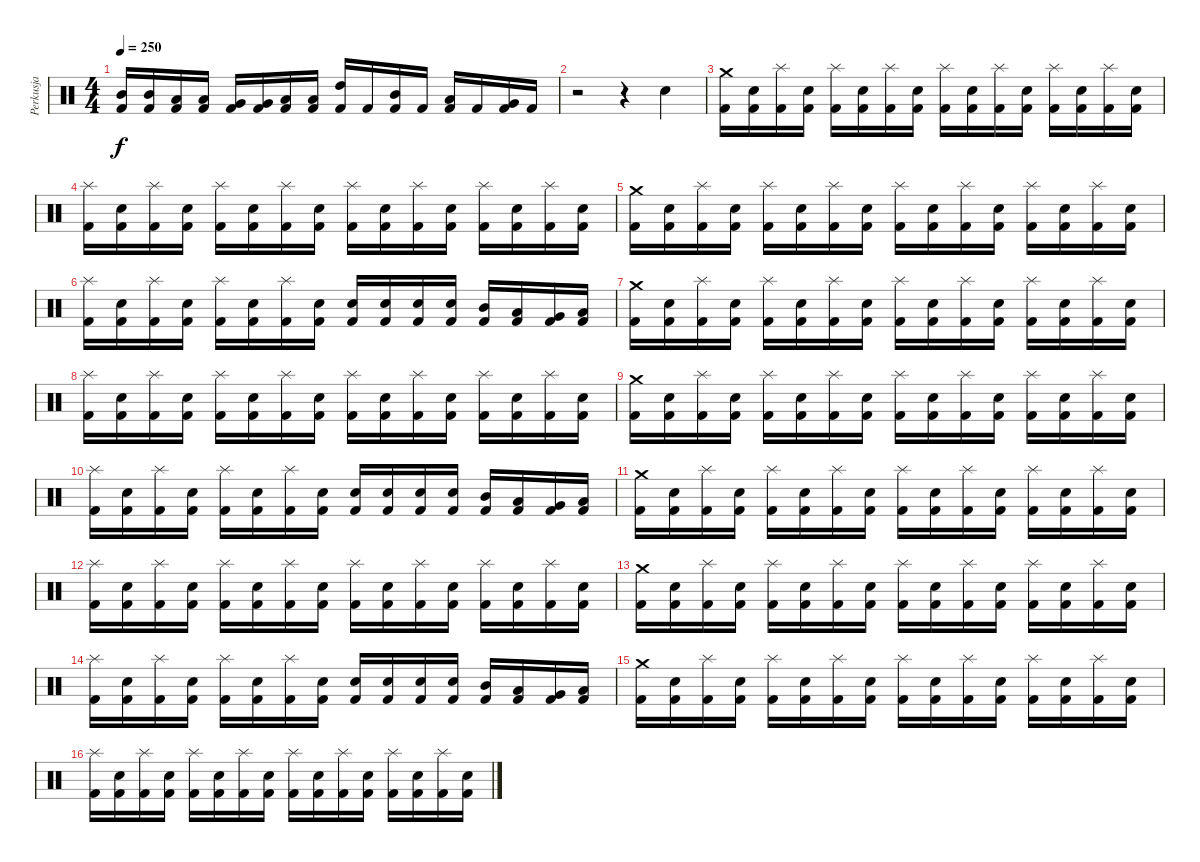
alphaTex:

\track ("Perkusja" "Perkusja") {instrument percussion}
\staff {score}
\articulation defaults
\ts (4 4)
\tempo 250
\clef neutral
\ks c
("Mid Tom (hit)" "Kick (hit) 2").16{dy f} ("Mid Tom (hit)" "Kick (hit) 2").16 ("Low Tom (hit)" "Kick (hit) 2").16 ("Low Tom (hit)" "Kick (hit) 2").16 ("Very Low Tom (hit)" "Kick (hit) 2").16 ("Very Low Tom (hit)" "Kick (hit) 2").16 ("Low Floor Tom (hit)" "Kick (hit) 2").16 ("Low Floor Tom (hit)" "Kick (hit) 2").16 ("High Tom (hit)" "Kick (hit) 2").16 "Kick (hit) 2".16 ("Mid Tom (hit)" "Kick (hit) 2").16 "Kick (hit) 2".16 ("Low Tom (hit)" "Kick (hit) 2").16 "Kick (hit) 2".16 ("Very Low Tom (hit)" "Kick (hit) 2").16 "Kick (hit) 2".16 |
r.2 r.4 "Electric Snare (hit)".4 |
("Crash medium (hit)" "Kick (hit) 2").16 ("Snare (hit) 2" "Kick (hit) 2").16 ("Splash (hit)" "Kick (hit) 2").16 ("Snare (hit) 2" "Kick (hit) 2").16 ("Splash (hit)" "Kick (hit) 2").16 ("Snare (hit) 2" "Kick (hit) 2").16 ("Splash (hit)" "Kick (hit) 2").16 ("Snare (hit) 2" "Kick (hit) 2").16 ("Splash (hit)" "Kick (hit) 2").16 ("Snare (hit) 2" "Kick (hit) 2").16 ("Splash (hit)" "Kick (hit) 2").16 ("Snare (hit) 2" "Kick (hit) 2").16 ("Splash (hit)" "Kick (hit) 2").16 ("Snare (hit) 2" "Kick (hit) 2").16 ("Splash (hit)" "Kick (hit) 2").16 ("Snare (hit) 2" "Kick (hit) 2").16 |
("Splash (hit)" "Kick (hit) 2").16 ("Snare (hit) 2" "Kick (hit) 2").16 ("Splash (hit)" "Kick (hit) 2").16 ("Snare (hit) 2" "Kick (hit) 2").16 ("Splash (hit)" "Kick (hit) 2").16 ("Snare (hit) 2" "Kick (hit) 2").16 ("Splash (hit)" "Kick (hit) 2").16 ("Snare (hit) 2" "Kick (hit) 2").16 ("Splash (hit)" "Kick (hit) 2").16 ("Snare (hit) 2" "Kick (hit) 2").16 ("Splash (hit)" "Kick (hit) 2").16 ("Snare (hit) 2" "Kick (hit) 2").16 ("Splash (hit)" "Kick (hit) 2").16 ("Snare (hit) 2" "Kick (hit) 2").16 ("Splash (hit)" "Kick (hit) 2").16 ("Snare (hit) 2" "Kick (hit) 2").16 |
("Crash medium (hit)" "Kick (hit) 2").16 ("Snare (hit) 2" "Kick (hit) 2").16 ("Splash (hit)" "Kick (hit) 2").16 ("Snare (hit) 2" "Kick (hit) 2").16 ("Splash (hit)" "Kick (hit) 2").16 ("Snare (hit) 2" "Kick (hit) 2").16 ("Splash (hit)" "Kick (hit) 2").16 ("Snare (hit) 2" "Kick (hit) 2").16 ("Splash (hit)" "Kick (hit) 2").16 ("Snare (hit) 2" "Kick (hit) 2").16 ("Splash (hit)" "Kick (hit) 2").16 ("Snare (hit) 2" "Kick (hit) 2").16 ("Splash (hit)" "Kick (hit) 2").16 ("Snare (hit) 2" "Kick (hit) 2").16 ("Splash (hit)" "Kick (hit) 2").16 ("Snare (hit) 2" "Kick (hit) 2").16 |
("Splash (hit)" "Kick (hit) 2").16 ("Snare (hit) 2" "Kick (hit) 2").16 ("Splash (hit)" "Kick (hit) 2").16 ("Snare (hit) 2" "Kick (hit) 2").16 ("Splash (hit)" "Kick (hit) 2").16 ("Snare (hit) 2" "Kick (hit) 2").16 ("Splash (hit)" "Kick (hit) 2").16 ("Snare (hit) 2" "Kick (hit) 2").16 ("Electric Snare (hit)" "Kick (hit) 2").16 ("Electric Snare (hit)" "Kick (hit) 2").16 ("Electric Snare (hit)" "Kick (hit) 2").16 ("Electric Snare (hit)" "Kick (hit) 2").16 ("Mid Tom (hit)" "Kick (hit) 2").16 ("Low Tom (hit)" "Kick (hit) 2").16 ("Very Low Tom (hit)" "Kick (hit) 2").16 ("Low Floor Tom (hit)" "Kick (hit) 2").16 |
("Crash medium (hit)" "Kick (hit) 2").16 ("Snare (hit) 2" "Kick (hit) 2").16 ("Splash (hit)" "Kick (hit) 2").16 ("Snare (hit) 2" "Kick (hit) 2").16 ("Splash (hit)" "Kick (hit) 2").16 ("Snare (hit) 2" "Kick (hit) 2").16 ("Splash (hit)" "Kick (hit) 2").16 ("Snare (hit) 2" "Kick (hit) 2").16 ("Splash (hit)" "Kick (hit) 2").16 ("Snare (hit) 2" "Kick (hit) 2").16 ("Splash (hit)" "Kick (hit) 2").16 ("Snare (hit) 2" "Kick (hit) 2").16 ("Splash (hit)" "Kick (hit) 2").16 ("Snare (hit) 2" "Kick (hit) 2").16 ("Splash (hit)" "Kick (hit) 2").16 ("Snare (hit) 2" "Kick (hit) 2").16 |
("Splash (hit)" "Kick (hit) 2").16 ("Snare (hit) 2" "Kick (hit) 2").16 ("Splash (hit)" "Kick (hit) 2").16 ("Snare (hit) 2" "Kick (hit) 2").16 ("Splash (hit)" "Kick (hit) 2").16 ("Snare (hit) 2" "Kick (hit) 2").16 ("Splash (hit)" "Kick (hit) 2").16 ("Snare (hit) 2" "Kick (hit) 2").16 ("Splash (hit)" "Kick (hit) 2").16 ("Snare (hit) 2" "Kick (hit) 2").16 ("Splash (hit)" "Kick (hit) 2").16 ("Snare (hit) 2" "Kick (hit) 2").16 ("Splash (hit)" "Kick (hit) 2").16 ("Snare (hit) 2" "Kick (hit) 2").16 ("Splash (hit)" "Kick (hit) 2").16 ("Snare (hit) 2" "Kick (hit) 2").16 |
("Crash medium (hit)" "Kick (hit) 2").16 ("Snare (hit) 2" "Kick (hit) 2").16 ("Splash (hit)" "Kick (hit) 2").16 ("Snare (hit) 2" "Kick (hit) 2").16 ("Splash (hit)" "Kick (hit) 2").16 ("Snare (hit) 2" "Kick (hit) 2").16 ("Splash (hit)" "Kick (hit) 2").16 ("Snare (hit) 2" "Kick (hit) 2").16 ("Splash (hit)" "Kick (hit) 2").16 ("Snare (hit) 2" "Kick (hit) 2").16 ("Splash (hit)" "Kick (hit) 2").16 ("Snare (hit) 2" "Kick (hit) 2").16 ("Splash (hit)" "Kick (hit) 2").16 ("Snare (hit) 2" "Kick (hit) 2").16 ("Splash (hit)" "Kick (hit) 2").16 ("Snare (hit) 2" "Kick (hit) 2").16 |
("Splash (hit)" "Kick (hit) 2").16 ("Snare (hit) 2" "Kick (hit) 2").16 ("Splash (hit)" "Kick (hit) 2").16 ("Snare (hit) 2" "Kick (hit) 2").16 ("Splash (hit)" "Kick (hit) 2").16 ("Snare (hit) 2" "Kick (hit) 2").16 ("Splash (hit)" "Kick (hit) 2").16 ("Snare (hit) 2" "Kick (hit) 2").16 ("Electric Snare (hit)" "Kick (hit) 2").16 ("Electric Snare (hit)" "Kick (hit) 2").16 ("Electric Snare (hit)" "Kick (hit) 2").16 ("Electric Snare (hit)" "Kick (hit) 2").16 ("Mid Tom (hit)" "Kick (hit) 2").16 ("Low Tom (hit)" "Kick (hit) 2").16 ("Very Low Tom (hit)" "Kick (hit) 2").16 ("Low Floor Tom (hit)" "Kick (hit) 2").16 |
("Crash medium (hit)" "Kick (hit) 2").16 ("Snare (hit) 2" "Kick (hit) 2").16 ("Splash (hit)" "Kick (hit) 2").16 ("Snare (hit) 2" "Kick (hit) 2").16 ("Splash (hit)" "Kick (hit) 2").16 ("Snare (hit) 2" "Kick (hit) 2").16 ("Splash (hit)" "Kick (hit) 2").16 ("Snare (hit) 2" "Kick (hit) 2").16 ("Splash (hit)" "Kick (hit) 2").16 ("Snare (hit) 2" "Kick (hit) 2").16 ("Splash (hit)" "Kick (hit) 2").16 ("Snare (hit) 2" "Kick (hit) 2").16 ("Splash (hit)" "Kick (hit) 2").16 ("Snare (hit) 2" "Kick (hit) 2").16 ("Splash (hit)" "Kick (hit) 2").16 ("Snare (hit) 2" "Kick (hit) 2").16 |
("Splash (hit)" "Kick (hit) 2").16 ("Snare (hit) 2" "Kick (hit) 2").16 ("Splash (hit)" "Kick (hit) 2").16 ("Snare (hit) 2" "Kick (hit) 2").16 ("Splash (hit)" "Kick (hit) 2").16 ("Snare (hit) 2" "Kick (hit) 2").16 ("Splash (hit)" "Kick (hit) 2").16 ("Snare (hit) 2" "Kick (hit) 2").16 ("Splash (hit)" "Kick (hit) 2").16 ("Snare (hit) 2" "Kick (hit) 2").16 ("Splash (hit)" "Kick (hit) 2").16 ("Snare (hit) 2" "Kick (hit) 2").16 ("Splash (hit)" "Kick (hit) 2").16 ("Snare (hit) 2" "Kick (hit) 2").16 ("Splash (hit)" "Kick (hit) 2").16 ("Snare (hit) 2" "Kick (hit) 2").16 |
("Crash medium (hit)" "Kick (hit) 2").16 ("Snare (hit) 2" "Kick (hit) 2").16 ("Splash (hit)" "Kick (hit) 2").16 ("Snare (hit) 2" "Kick (hit) 2").16 ("Splash (hit)" "Kick (hit) 2").16 ("Snare (hit) 2" "Kick (hit) 2").16 ("Splash (hit)" "Kick (hit) 2").16 ("Snare (hit) 2" "Kick (hit) 2").16 ("Splash (hit)" "Kick (hit) 2").16 ("Snare (hit) 2" "Kick (hit) 2").16 ("Splash (hit)" "Kick (hit) 2").16 ("Snare (hit) 2" "Kick (hit) 2").16 ("Splash (hit)" "Kick (hit) 2").16 ("Snare (hit) 2" "Kick (hit) 2").16 ("Splash (hit)" "Kick (hit) 2").16 ("Snare (hit) 2" "Kick (hit) 2").16 |
("Splash (hit)" "Kick (hit) 2").16 ("Snare (hit) 2" "Kick (hit) 2").16 ("Splash (hit)" "Kick (hit) 2").16 ("Snare (hit) 2" "Kick (hit) 2").16 ("Splash (hit)" "Kick (hit) 2").16 ("Snare (hit) 2" "Kick (hit) 2").16 ("Splash (hit)" "Kick (hit) 2").16 ("Snare (hit) 2" "Kick (hit) 2").16 ("Electric Snare (hit)" "Kick (hit) 2").16 ("Electric Snare (hit)" "Kick (hit) 2").16 ("Electric Snare (hit)" "Kick (hit) 2").16 ("Electric Snare (hit)" "Kick (hit) 2").16 ("Mid Tom (hit)" "Kick (hit) 2").16 ("Low Tom (hit)" "Kick (hit) 2").16 ("Very Low Tom (hit)" "Kick (hit) 2").16 ("Low Floor Tom (hit)" "Kick (hit) 2").16 |
("Crash medium (hit)" "Kick (hit) 2").16 ("Snare (hit) 2" "Kick (hit) 2").16 ("Splash (hit)" "Kick (hit) 2").16 ("Snare (hit) 2" "Kick (hit) 2").16 ("Splash (hit)" "Kick (hit) 2").16 ("Snare (hit) 2" "Kick (hit) 2").16 ("Splash (hit)" "Kick (hit) 2").16 ("Snare (hit) 2" "Kick (hit) 2").16 ("Splash (hit)" "Kick (hit) 2").16 ("Snare (hit) 2" "Kick (hit) 2").16 ("Splash (hit)" "Kick (hit) 2").16 ("Snare (hit) 2" "Kick (hit) 2").16 ("Splash (hit)" "Kick (hit) 2").16 ("Snare (hit) 2" "Kick (hit) 2").16 ("Splash (hit)" "Kick (hit) 2").16 ("Snare (hit) 2" "Kick (hit) 2").16 |
("Splash (hit)" "Kick (hit) 2").16 ("Snare (hit) 2" "Kick (hit) 2").16 ("Splash (hit)" "Kick (hit) 2").16 ("Snare (hit) 2" "Kick (hit) 2").16 ("Splash (hit)" "Kick (hit) 2").16 ("Snare (hit) 2" "Kick (hit) 2").16 ("Splash (hit)" "Kick (hit) 2").16 ("Snare (hit) 2" "Kick (hit) 2").16 ("Splash (hit)" "Kick (hit) 2").16 ("Snare (hit) 2" "Kick (hit) 2").16 ("Splash (hit)" "Kick (hit) 2").16 ("Snare (hit) 2" "Kick (hit) 2").16 ("Splash (hit)" "Kick (hit) 2").16 ("Snare (hit) 2" "Kick (hit) 2").16 ("Splash (hit)" "Kick (hit) 2").16 ("Snare (hit) 2" "Kick (hit) 2").16
